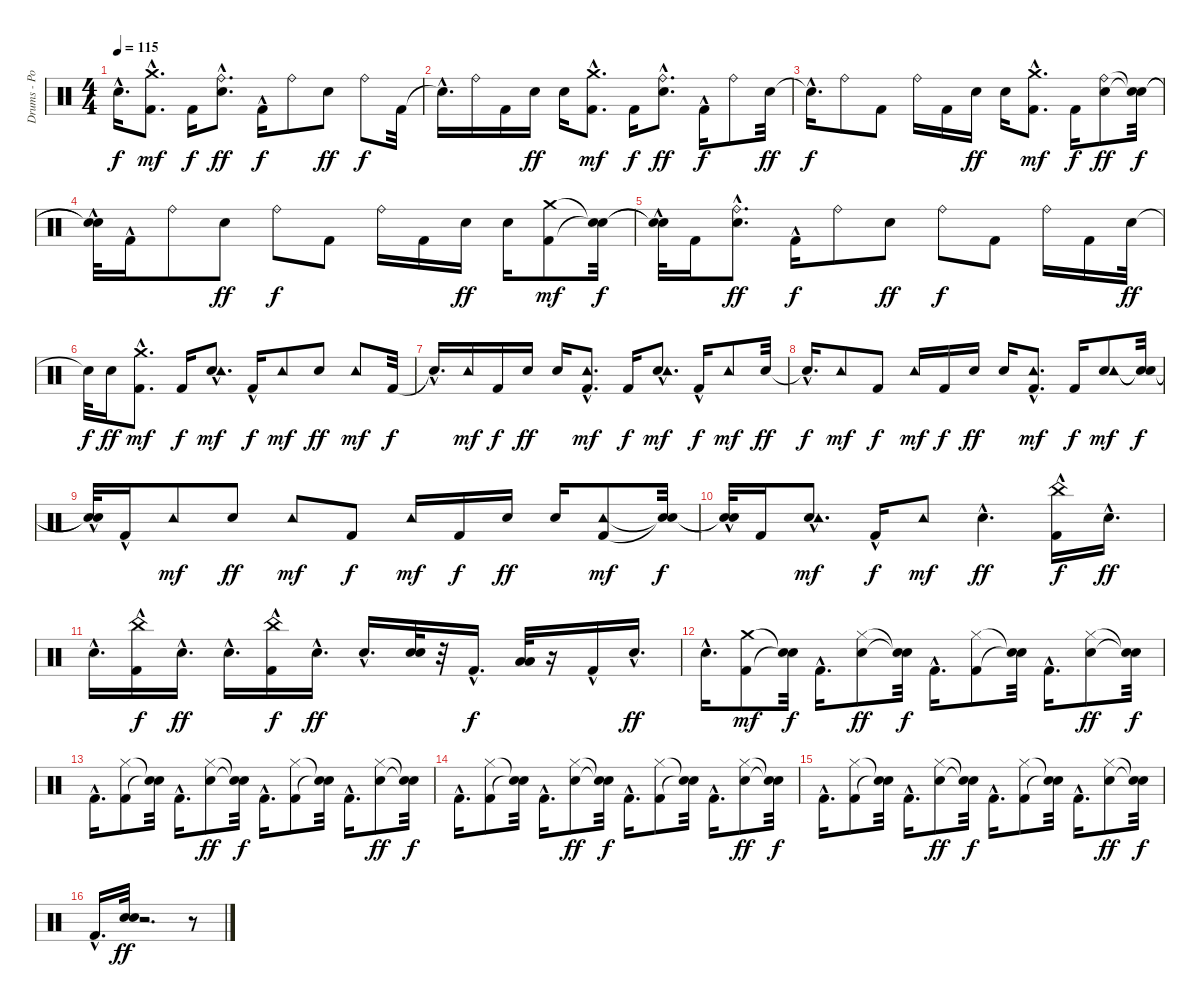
\track ("Drums - Portnoy" "Drums - Po") {instrument percussion}
\staff {score}
\articulation defaults
\ts (4 4)
\tempo 115
\clef neutral
\ks c "Snare (hit)"{hac t}.16{d dy f}
("Kick (hit) 2"{hac} "Crash medium (hit)").8{d dy mf} "Kick (hit) 2".16{dy f} ("Ride (bell)" "Electric Snare (hit)"{hac}).8{d dy ff} "Kick (hit) 2"{hac}.16{dy f} "Ride (bell)".8 "Electric Snare (hit)".8{dy ff} "Ride (bell)".8{dy f} "Kick (hit) 2".32 |
"Snare (hit)"{hac t}.16{d} "Ride (bell)".16 "Kick (hit) 2".16 "Electric Snare (hit)".16{dy ff} "Electric Snare (hit)".16 ("Kick (hit) 2"{hac} "Crash medium (hit)").8{d dy mf} "Kick (hit) 2".16{dy f} ("Ride (bell)" "Electric Snare (hit)"{hac}).8{d dy ff} "Kick (hit) 2"{hac}.16{dy f} "Ride (bell)".8 "Electric Snare (hit)".32{dy ff} |
"Snare (hit)"{hac t}.16{d dy f} "Ride (bell)".8 "Kick (hit) 2".8 "Ride (bell)".16 "Kick (hit) 2".16 "Electric Snare (hit)".16{dy ff} "Electric Snare (hit)".16 ("Kick (hit) 2"{hac} "Crash medium (hit)").8{d dy mf} "Kick (hit) 2".16{dy f} ("Ride (bell)" "Electric Snare (hit)").8{dy ff} ("Snare (hit)"{t} "Snare (hit)"{t}).32{dy f} |
("Snare (hit)"{hac t} "Snare (hit)"{t}).32 "Kick (hit) 2"{hac}.16 "Ride (bell)".8 "Electric Snare (hit)".8{dy ff} "Ride (bell)".8{dy f} "Kick (hit) 2".8 "Ride (bell)".16 "Kick (hit) 2".16 "Electric Snare (hit)".16{dy ff} "Electric Snare (hit)".16 ("Kick (hit) 2" "Crash medium (hit)").8{dy mf} ("Snare (hit)"{t} "Snare (hit)"{t}).32{dy f} |
("Snare (hit)"{t} "Snare (hit)"{hac t}).32 "Kick (hit) 2".16 ("Ride (bell)" "Electric Snare (hit)"{hac}).8{d dy ff} "Kick (hit) 2"{hac}.16{dy f} "Ride (bell)".8 "Electric Snare (hit)".8{dy ff} "Ride (bell)".8{dy f} "Kick (hit) 2".8 "Ride (bell)".16 "Kick (hit) 2".16 "Electric Snare (hit)".32{dy ff} |
"Snare (hit)"{t}.32{dy f} "Electric Snare (hit)".16{dy ff} ("Kick (hit) 2"{hac} "Crash medium (hit)").8{d dy mf} "Kick (hit) 2".16{dy f} ("Electric Snare (hit)"{hac} "Tambourine (hit)").8{d dy mf} "Kick (hit) 2"{hac}.16{dy f} "Tambourine (hit)".8{dy mf} "Electric Snare (hit)".8{dy ff} "Tambourine (hit)".8{dy mf} "Kick (hit) 2".32{dy f} |
"Snare (hit)"{hac t}.16{d} "Tambourine (hit)".16{dy mf} "Kick (hit) 2".16{dy f} "Electric Snare (hit)".16{dy ff} "Electric Snare (hit)".16 ("Kick (hit) 2"{hac} "Tambourine (hit)").8{d dy mf} "Kick (hit) 2".16{dy f} ("Electric Snare (hit)"{hac} "Tambourine (hit)").8{d dy mf} "Kick (hit) 2"{hac}.16{dy f} "Tambourine (hit)".8{dy mf} "Electric Snare (hit)".32{dy ff} |
"Snare (hit)"{hac t}.16{d dy f} "Tambourine (hit)".8{dy mf} "Kick (hit) 2".8{dy f} "Tambourine (hit)".16{dy mf} "Kick (hit) 2".16{dy f} "Electric Snare (hit)".16{dy ff} "Electric Snare (hit)".16 ("Kick (hit) 2"{hac} "Tambourine (hit)").8{d dy mf} "Kick (hit) 2".16{dy f} ("Electric Snare (hit)" "Tambourine (hit)").8{dy mf} ("Snare (hit)"{t} "Snare (hit)"{t}).32{dy f} |
("Snare (hit)"{t} "Snare (hit)"{hac t}).32 "Kick (hit) 2"{hac}.16 "Tambourine (hit)".8{dy mf} "Electric Snare (hit)".8{dy ff} "Tambourine (hit)".8{dy mf} "Kick (hit) 2".8{dy f} "Tambourine (hit)".16{dy mf} "Kick (hit) 2".16{dy f} "Electric Snare (hit)".16{dy ff} "Electric Snare (hit)".16 ("Kick (hit) 2" "Tambourine (hit)").8{dy mf} ("Snare (hit)"{t} "Snare (hit)"{t}).32{dy f} |
("Snare (hit)"{t} "Snare (hit)"{hac t}).32 "Kick (hit) 2".16 ("Electric Snare (hit)"{hac} "Tambourine (hit)").8{d dy mf} "Kick (hit) 2"{hac}.16{dy f} "Tambourine (hit)".8{dy mf} "Electric Snare (hit)"{hac}.4{d dy ff} ("Kick (hit) 2"{hac} "China (hit)").16{dy f} "Electric Snare (hit)"{hac}.16{d dy ff} |
"Electric Snare (hit)"{hac}.16{d} ("Kick (hit) 2"{hac} "China (hit)").16{dy f} "Electric Snare (hit)"{hac}.16{d dy ff} "Electric Snare (hit)"{hac}.16{d} ("Kick (hit) 2"{hac} "China (hit)").16{dy f} "Electric Snare (hit)"{hac}.16{d dy ff} "Electric Snare (hit)"{hac}.16{d} ("Electric Snare (hit)" "Electric Snare (hit)").32 r.32 "Kick (hit) 2"{hac}.16{d dy f} ("Low Tom (hit)" "Low Tom (hit)").32 r.16 "Kick (hit) 2"{hac}.16 "Electric Snare (hit)"{hac}.16{d dy ff} |
"Electric Snare (hit)"{hac}.16{d} ("Kick (hit) 2" "Crash medium (hit)").8{dy mf} ("Snare (hit)"{t} "Snare (hit)"{t}).32{dy f} "Kick (hit) 2"{hac}.16{d} ("Hi-Hat (closed)" "Electric Snare (hit)").8{dy ff} ("Snare (hit)"{t} "Snare (hit)"{t}).32{dy f} "Kick (hit) 2"{hac}.16{d} ("Kick (hit) 2" "Hi-Hat (closed)").8 ("Snare (hit)"{t} "Snare (hit)"{t}).32 "Kick (hit) 2"{hac}.16{d} ("Electric Snare (hit)" "Hi-Hat (closed)").8{dy ff} ("Snare (hit)"{t} "Snare (hit)"{t}).32{dy f} |
"Kick (hit) 2"{hac}.16{d} ("Kick (hit) 2" "Hi-Hat (closed)").8 ("Snare (hit)"{t} "Snare (hit)"{t}).32 "Kick (hit) 2"{hac}.16{d} ("Hi-Hat (closed)" "Electric Snare (hit)").8{dy ff} ("Snare (hit)"{t} "Snare (hit)"{t}).32{dy f} "Kick (hit) 2"{hac}.16{d} ("Kick (hit) 2" "Hi-Hat (closed)").8 ("Snare (hit)"{t} "Snare (hit)"{t}).32 "Kick (hit) 2"{hac}.16{d} ("Electric Snare (hit)" "Hi-Hat (closed)").8{dy ff} ("Snare (hit)"{t} "Snare (hit)"{t}).32{dy f} |
"Kick (hit) 2"{hac}.16{d} ("Kick (hit) 2" "Hi-Hat (closed)").8 ("Snare (hit)"{t} "Snare (hit)"{t}).32 "Kick (hit) 2"{hac}.16{d} ("Hi-Hat (closed)" "Electric Snare (hit)").8{dy ff} ("Snare (hit)"{t} "Snare (hit)"{t}).32{dy f} "Kick (hit) 2"{hac}.16{d} ("Kick (hit) 2" "Hi-Hat (closed)").8 ("Snare (hit)"{t} "Snare (hit)"{t}).32 "Kick (hit) 2"{hac}.16{d} ("Electric Snare (hit)" "Hi-Hat (closed)").8{dy ff} ("Snare (hit)"{t} "Snare (hit)"{t}).32{dy f} |
"Kick (hit) 2"{hac}.16{d} ("Kick (hit) 2" "Hi-Hat (closed)").8 ("Snare (hit)"{t} "Snare (hit)"{t}).32 "Kick (hit) 2"{hac}.16{d} ("Hi-Hat (closed)" "Electric Snare (hit)").8{dy ff} ("Snare (hit)"{t} "Snare (hit)"{t}).32{dy f} "Kick (hit) 2"{hac}.16{d} ("Kick (hit) 2" "Hi-Hat (closed)").8 ("Snare (hit)"{t} "Snare (hit)"{t}).32 "Kick (hit) 2"{hac}.16{d} ("Hi-Hat (closed)" "Electric Snare (hit)").8{dy ff} ("Snare (hit)"{t} "Snare (hit)"{t}).32{dy f} |
"Kick (hit) 2"{hac}.16{d} ("Electric Snare (hit)" "Electric Snare (hit)").32{dy ff} r.2{d} r.8
